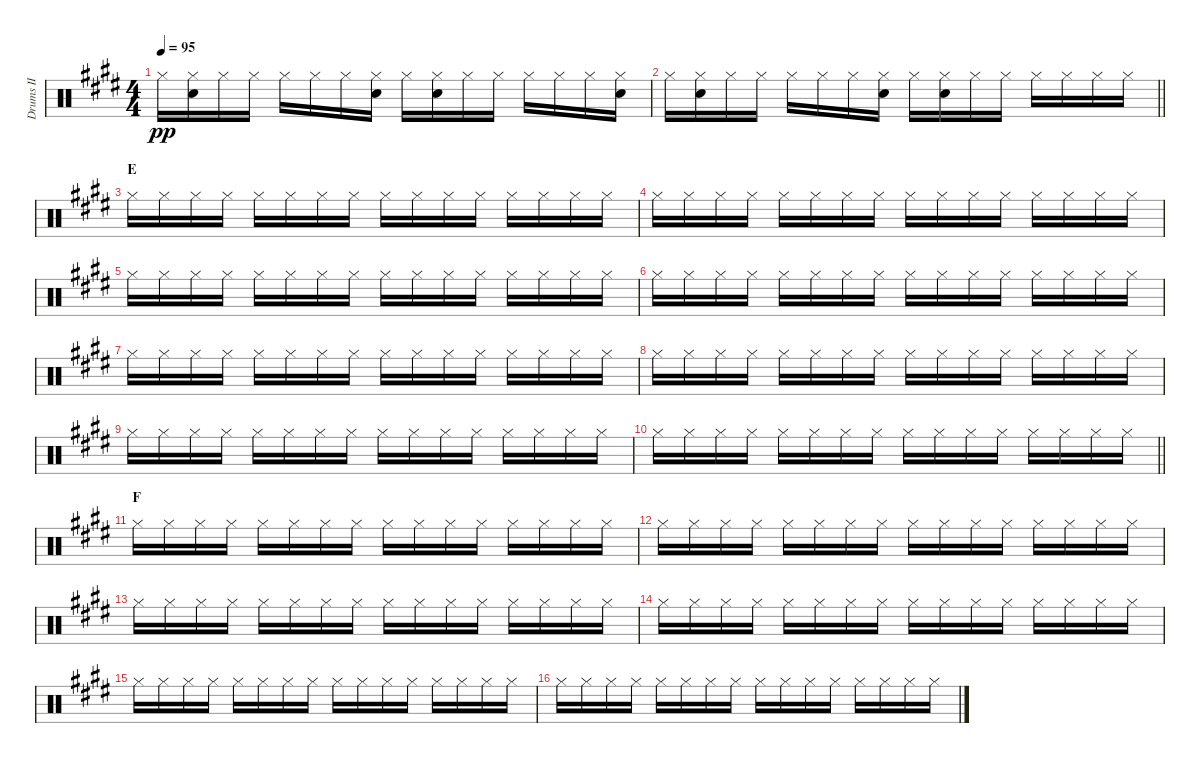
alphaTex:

\track ("Drums II" "Drums II") {instrument percussion}
\staff {score}
\articulation defaults
\ts (4 4)
\tempo 95
\clef neutral
\ks e "Hi-Hat (closed)".16{dy pp}
("Hi-Hat (closed)" "Snare (hit) 2").16 "Hi-Hat (closed)".16 "Hi-Hat (closed)".16 "Hi-Hat (closed)".16 "Hi-Hat (closed)".16 "Hi-Hat (closed)".16 ("Hi-Hat (closed)" "Snare (hit) 2").16 "Hi-Hat (closed)".16 ("Hi-Hat (closed)" "Snare (hit) 2").16 "Hi-Hat (closed)".16 "Hi-Hat (closed)".16 "Hi-Hat (closed)".16 "Hi-Hat (closed)".16 "Hi-Hat (closed)".16 ("Hi-Hat (closed)" "Snare (hit) 2").16 |
\barLineRight lightlight "Hi-Hat (closed)".16
("Hi-Hat (closed)" "Snare (hit) 2").16 "Hi-Hat (closed)".16 "Hi-Hat (closed)".16 "Hi-Hat (closed)".16 "Hi-Hat (closed)".16 "Hi-Hat (closed)".16 ("Hi-Hat (closed)" "Snare (hit) 2").16 "Hi-Hat (closed)".16 ("Hi-Hat (closed)" "Snare (hit) 2").16 "Hi-Hat (closed)".16 "Hi-Hat (closed)".16 "Hi-Hat (closed)".16 "Hi-Hat (closed)".16 "Hi-Hat (closed)".16 "Hi-Hat (closed)".16 |
\section ("" "E")
"Hi-Hat (closed)".16 "Hi-Hat (closed)".16 "Hi-Hat (closed)".16 "Hi-Hat (closed)".16 "Hi-Hat (closed)".16 "Hi-Hat (closed)".16 "Hi-Hat (closed)".16 "Hi-Hat (closed)".16 "Hi-Hat (closed)".16 "Hi-Hat (closed)".16 "Hi-Hat (closed)".16 "Hi-Hat (closed)".16 "Hi-Hat (closed)".16 "Hi-Hat (closed)".16 "Hi-Hat (closed)".16 "Hi-Hat (closed)".16 |
"Hi-Hat (closed)".16 "Hi-Hat (closed)".16 "Hi-Hat (closed)".16 "Hi-Hat (closed)".16 "Hi-Hat (closed)".16 "Hi-Hat (closed)".16 "Hi-Hat (closed)".16 "Hi-Hat (closed)".16 "Hi-Hat (closed)".16 "Hi-Hat (closed)".16 "Hi-Hat (closed)".16 "Hi-Hat (closed)".16 "Hi-Hat (closed)".16 "Hi-Hat (closed)".16 "Hi-Hat (closed)".16 "Hi-Hat (closed)".16 |
"Hi-Hat (closed)".16 "Hi-Hat (closed)".16 "Hi-Hat (closed)".16 "Hi-Hat (closed)".16 "Hi-Hat (closed)".16 "Hi-Hat (closed)".16 "Hi-Hat (closed)".16 "Hi-Hat (closed)".16 "Hi-Hat (closed)".16 "Hi-Hat (closed)".16 "Hi-Hat (closed)".16 "Hi-Hat (closed)".16 "Hi-Hat (closed)".16 "Hi-Hat (closed)".16 "Hi-Hat (closed)".16 "Hi-Hat (closed)".16 |
"Hi-Hat (closed)".16 "Hi-Hat (closed)".16 "Hi-Hat (closed)".16 "Hi-Hat (closed)".16 "Hi-Hat (closed)".16 "Hi-Hat (closed)".16 "Hi-Hat (closed)".16 "Hi-Hat (closed)".16 "Hi-Hat (closed)".16 "Hi-Hat (closed)".16 "Hi-Hat (closed)".16 "Hi-Hat (closed)".16 "Hi-Hat (closed)".16 "Hi-Hat (closed)".16 "Hi-Hat (closed)".16 "Hi-Hat (closed)".16 |
"Hi-Hat (closed)".16 "Hi-Hat (closed)".16 "Hi-Hat (closed)".16 "Hi-Hat (closed)".16 "Hi-Hat (closed)".16 "Hi-Hat (closed)".16 "Hi-Hat (closed)".16 "Hi-Hat (closed)".16 "Hi-Hat (closed)".16 "Hi-Hat (closed)".16 "Hi-Hat (closed)".16 "Hi-Hat (closed)".16 "Hi-Hat (closed)".16 "Hi-Hat (closed)".16 "Hi-Hat (closed)".16 "Hi-Hat (closed)".16 |
"Hi-Hat (closed)".16 "Hi-Hat (closed)".16 "Hi-Hat (closed)".16 "Hi-Hat (closed)".16 "Hi-Hat (closed)".16 "Hi-Hat (closed)".16 "Hi-Hat (closed)".16 "Hi-Hat (closed)".16 "Hi-Hat (closed)".16 "Hi-Hat (closed)".16 "Hi-Hat (closed)".16 "Hi-Hat (closed)".16 "Hi-Hat (closed)".16 "Hi-Hat (closed)".16 "Hi-Hat (closed)".16 "Hi-Hat (closed)".16 |
"Hi-Hat (closed)".16 "Hi-Hat (closed)".16 "Hi-Hat (closed)".16 "Hi-Hat (closed)".16 "Hi-Hat (closed)".16 "Hi-Hat (closed)".16 "Hi-Hat (closed)".16 "Hi-Hat (closed)".16 "Hi-Hat (closed)".16 "Hi-Hat (closed)".16 "Hi-Hat (closed)".16 "Hi-Hat (closed)".16 "Hi-Hat (closed)".16 "Hi-Hat (closed)".16 "Hi-Hat (closed)".16 "Hi-Hat (closed)".16 |
\barLineRight lightlight "Hi-Hat (closed)".16 "Hi-Hat (closed)".16 "Hi-Hat (closed)".16 "Hi-Hat (closed)".16 "Hi-Hat (closed)".16 "Hi-Hat (closed)".16 "Hi-Hat (closed)".16 "Hi-Hat (closed)".16 "Hi-Hat (closed)".16 "Hi-Hat (closed)".16 "Hi-Hat (closed)".16 "Hi-Hat (closed)".16 "Hi-Hat (closed)".16 "Hi-Hat (closed)".16 "Hi-Hat (closed)".16 "Hi-Hat (closed)".16
|
\section ("" "F")
"Hi-Hat (closed)".16 "Hi-Hat (closed)".16 "Hi-Hat (closed)".16 "Hi-Hat (closed)".16 "Hi-Hat (closed)".16 "Hi-Hat (closed)".16 "Hi-Hat (closed)".16 "Hi-Hat (closed)".16 "Hi-Hat (closed)".16 "Hi-Hat (closed)".16 "Hi-Hat (closed)".16 "Hi-Hat (closed)".16 "Hi-Hat (closed)".16 "Hi-Hat (closed)".16 "Hi-Hat (closed)".16 "Hi-Hat (closed)".16 |
"Hi-Hat (closed)".16 "Hi-Hat (closed)".16 "Hi-Hat (closed)".16 "Hi-Hat (closed)".16 "Hi-Hat (closed)".16 "Hi-Hat (closed)".16 "Hi-Hat (closed)".16 "Hi-Hat (closed)".16 "Hi-Hat (closed)".16 "Hi-Hat (closed)".16 "Hi-Hat (closed)".16 "Hi-Hat (closed)".16 "Hi-Hat (closed)".16 "Hi-Hat (closed)".16 "Hi-Hat (closed)".16 "Hi-Hat (closed)".16 |
"Hi-Hat (closed)".16 "Hi-Hat (closed)".16 "Hi-Hat (closed)".16 "Hi-Hat (closed)".16 "Hi-Hat (closed)".16 "Hi-Hat (closed)".16 "Hi-Hat (closed)".16 "Hi-Hat (closed)".16 "Hi-Hat (closed)".16 "Hi-Hat (closed)".16 "Hi-Hat (closed)".16 "Hi-Hat (closed)".16 "Hi-Hat (closed)".16 "Hi-Hat (closed)".16 "Hi-Hat (closed)".16 "Hi-Hat (closed)".16 |
"Hi-Hat (closed)".16 "Hi-Hat (closed)".16 "Hi-Hat (closed)".16 "Hi-Hat (closed)".16 "Hi-Hat (closed)".16 "Hi-Hat (closed)".16 "Hi-Hat (closed)".16 "Hi-Hat (closed)".16 "Hi-Hat (closed)".16 "Hi-Hat (closed)".16 "Hi-Hat (closed)".16 "Hi-Hat (closed)".16 "Hi-Hat (closed)".16 "Hi-Hat (closed)".16 "Hi-Hat (closed)".16 "Hi-Hat (closed)".16 |
"Hi-Hat (closed)".16 "Hi-Hat (closed)".16 "Hi-Hat (closed)".16 "Hi-Hat (closed)".16 "Hi-Hat (closed)".16 "Hi-Hat (closed)".16 "Hi-Hat (closed)".16 "Hi-Hat (closed)".16 "Hi-Hat (closed)".16 "Hi-Hat (closed)".16 "Hi-Hat (closed)".16 "Hi-Hat (closed)".16 "Hi-Hat (closed)".16 "Hi-Hat (closed)".16 "Hi-Hat (closed)".16 "Hi-Hat (closed)".16 |
"Hi-Hat (closed)".16 "Hi-Hat (closed)".16 "Hi-Hat (closed)".16 "Hi-Hat (closed)".16 "Hi-Hat (closed)".16 "Hi-Hat (closed)".16 "Hi-Hat (closed)".16 "Hi-Hat (closed)".16 "Hi-Hat (closed)".16 "Hi-Hat (closed)".16 "Hi-Hat (closed)".16 "Hi-Hat (closed)".16 "Hi-Hat (closed)".16 "Hi-Hat (closed)".16 "Hi-Hat (closed)".16 "Hi-Hat (closed)".16
